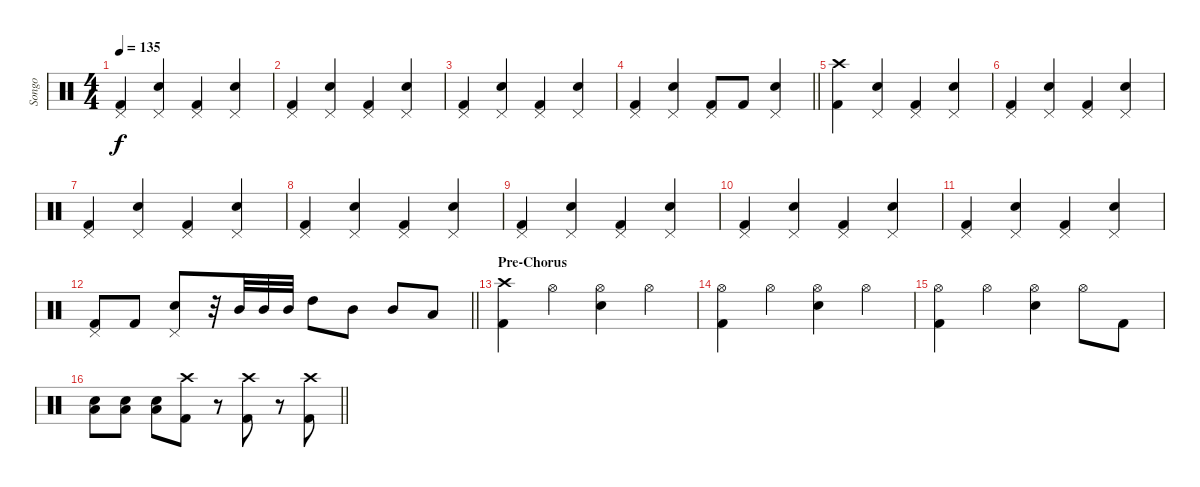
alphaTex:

\track ("Songo" "Songo") {instrument percussion}
\staff {score}
\articulation defaults
\ts (4 4)
\tempo 135
\clef neutral
\ks c
("Pedal Hi-Hat (hit)" "Kick (hit) 2").4{dy f} ("Pedal Hi-Hat (hit)" "Snare (hit) 2").4 ("Pedal Hi-Hat (hit)" "Kick (hit) 2").4 ("Pedal Hi-Hat (hit)" "Snare (hit) 2").4 |
("Pedal Hi-Hat (hit)" "Kick (hit) 2").4 ("Pedal Hi-Hat (hit)" "Snare (hit) 2").4 ("Pedal Hi-Hat (hit)" "Kick (hit) 2").4 ("Pedal Hi-Hat (hit)" "Snare (hit) 2").4 |
("Pedal Hi-Hat (hit)" "Kick (hit) 2").4 ("Pedal Hi-Hat (hit)" "Snare (hit) 2").4 ("Pedal Hi-Hat (hit)" "Kick (hit) 2").4 ("Pedal Hi-Hat (hit)" "Snare (hit) 2").4 |
\barLineRight lightlight
("Pedal Hi-Hat (hit)" "Kick (hit) 2").4 ("Pedal Hi-Hat (hit)" "Snare (hit) 2").4 ("Pedal Hi-Hat (hit)" "Kick (hit) 2").8 "Kick (hit) 2".8 ("Pedal Hi-Hat (hit)" "Snare (hit) 2").4 |
("Crash high (hit)" "Kick (hit) 2").4 ("Pedal Hi-Hat (hit)" "Snare (hit) 2").4 ("Pedal Hi-Hat (hit)" "Kick (hit) 2").4 ("Pedal Hi-Hat (hit)" "Snare (hit) 2").4 |
("Pedal Hi-Hat (hit)" "Kick (hit) 2").4 ("Pedal Hi-Hat (hit)" "Snare (hit) 2").4 ("Pedal Hi-Hat (hit)" "Kick (hit) 2").4 ("Pedal Hi-Hat (hit)" "Snare (hit) 2").4 |
("Pedal Hi-Hat (hit)" "Kick (hit) 2").4 ("Pedal Hi-Hat (hit)" "Snare (hit) 2").4 ("Pedal Hi-Hat (hit)" "Kick (hit) 2").4 ("Pedal Hi-Hat (hit)" "Snare (hit) 2").4 |
("Pedal Hi-Hat (hit)" "Kick (hit) 2").4 ("Pedal Hi-Hat (hit)" "Snare (hit) 2").4 ("Pedal Hi-Hat (hit)" "Kick (hit) 2").4 ("Pedal Hi-Hat (hit)" "Snare (hit) 2").4 |
("Pedal Hi-Hat (hit)" "Kick (hit) 2").4 ("Pedal Hi-Hat (hit)" "Snare (hit) 2").4 ("Pedal Hi-Hat (hit)" "Kick (hit) 2").4 ("Pedal Hi-Hat (hit)" "Snare (hit) 2").4 |
("Pedal Hi-Hat (hit)" "Kick (hit) 2").4 ("Pedal Hi-Hat (hit)" "Snare (hit) 2").4 ("Pedal Hi-Hat (hit)" "Kick (hit) 2").4 ("Pedal Hi-Hat (hit)" "Snare (hit) 2").4 |
("Pedal Hi-Hat (hit)" "Kick (hit) 2").4 ("Pedal Hi-Hat (hit)" "Snare (hit) 2").4 ("Pedal Hi-Hat (hit)" "Kick (hit) 2").4 ("Pedal Hi-Hat (hit)" "Snare (hit) 2").4 |
\barLineRight lightlight
("Pedal Hi-Hat (hit)" "Kick (hit) 2").8 "Kick (hit) 2".8 ("Pedal Hi-Hat (hit)" "Snare (hit) 2").8 r.32 "Mid Tom (hit)".32 "Mid Tom (hit)".32 "Mid Tom (hit)".32 "High Tom (hit)".8 "Mid Tom (hit)".8 "Mid Tom (hit)".8 "Low Tom (hit)".8 |
\section ("" "Pre-Chorus")
("Crash high (hit)" "Kick (hit) 2").4 "Hi-Hat (open)".4 ("Hi-Hat (open)" "Snare (hit) 2").4 "Hi-Hat (open)".4 |
("Hi-Hat (open)" "Kick (hit) 2").4 "Hi-Hat (open)".4 ("Hi-Hat (open)" "Snare (hit) 2").4 "Hi-Hat (open)".4 |
("Hi-Hat (open)" "Kick (hit) 2").4 "Hi-Hat (open)".4 ("Hi-Hat (open)" "Snare (hit) 2").4 "Hi-Hat (open)".8 "Kick (hit) 2".8 |
\barLineRight lightlight
("Low Tom (hit)" "Snare (hit) 2").8 ("Low Tom (hit)" "Snare (hit) 2").8 ("Low Tom (hit)" "Snare (hit) 2").8 ("Crash high (hit)" "Kick (hit) 2").8 r.8 ("Crash high (hit)" "Kick (hit) 2").8 r.8 ("Crash high (hit)" "Kick (hit) 2").8
